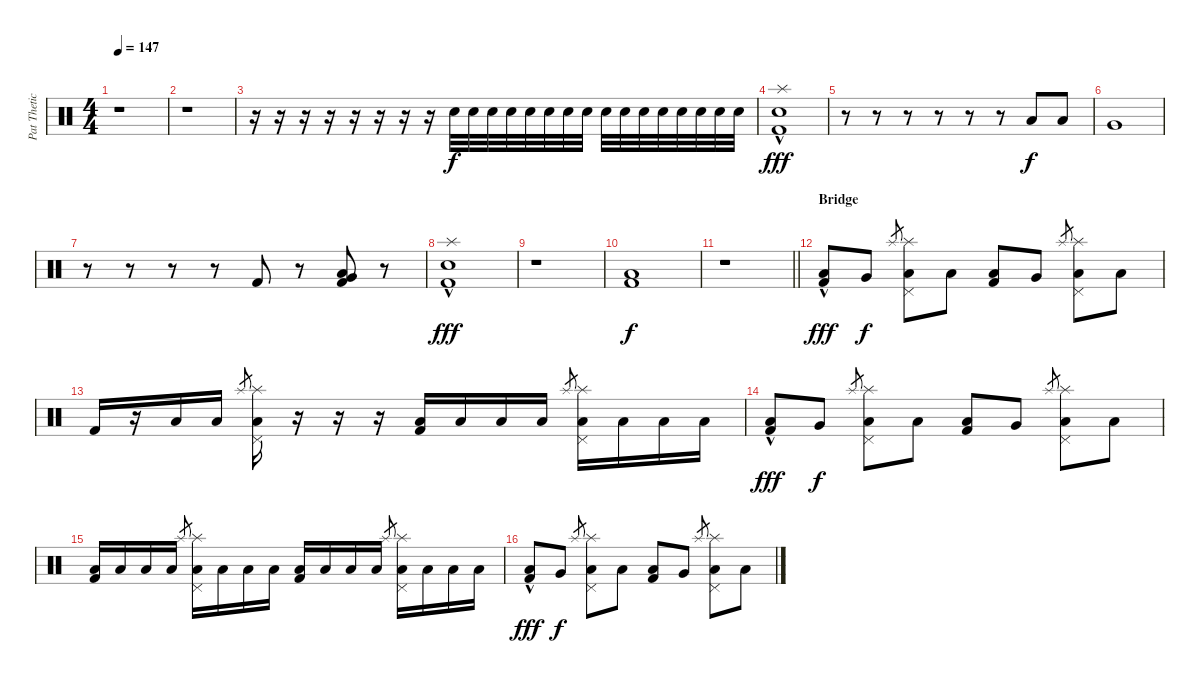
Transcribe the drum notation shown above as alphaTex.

\track ("Pat Thetic Drums" "Pat Thetic") {instrument percussion}
\staff {score}
\articulation defaults
\ts (4 4)
\tempo 147
\clef neutral
\ks c
r.1{dy f} |
r.1 |
r.16 r.16 r.16 r.16 r.16 r.16 r.16 r.16 "Snare (hit) 2".32{volume 5} "Snare (hit) 2".32 "Snare (hit) 2".32 "Snare (hit) 2".32 "Snare (hit) 2".32 "Snare (hit) 2".32 "Snare (hit) 2".32 "Snare (hit) 2".32 "Snare (hit) 2".32 "Snare (hit) 2".32 "Snare (hit) 2".32 "Snare (hit) 2".32 "Snare (hit) 2".32 "Snare (hit) 2".32 "Snare (hit) 2".32 "Snare (hit) 2".32 |
("Splash (hit)" "Snare (hit) 2"{hac} "Kick (hit) 2"{hac}).1{dy fff volume 16} |
r.8 r.8 r.8 r.8 r.8 r.8 "Low Floor Tom (hit)".8{dy f} "Low Floor Tom (hit)".8 |
"Very Low Tom (hit)".1 |
r.8 r.8 r.8 r.8 "Kick (hit) 2".8 r.8 ("Kick (hit) 2" "Very Low Tom (hit)" "Low Floor Tom (hit)").8 r.8 |
("Splash (hit)" "Snare (hit) 2"{hac} "Kick (hit) 2"{hac}).1{dy fff volume 16} |
r.1 |
("Kick (hit) 2" "Low Floor Tom (hit)").1{dy f} |
\barLineRight lightlight
r.1 |
\section ("" "Bridge")
("Kick (hit) 2"{hac} "Low Floor Tom (hit)").8{dy fff} "Very Low Tom (hit)".8{dy f} "Splash (hit)".8{gr} ("Splash (hit)" "Pedal Hi-Hat (hit)" "Low Tom (hit)").8 "Low Tom (hit)".8 ("Kick (hit) 2" "Low Floor Tom (hit)").8 "Very Low Tom (hit)".8 "Splash (hit)".8{gr} ("Splash (hit)" "Pedal Hi-Hat (hit)" "Low Tom (hit)").8 "Low Tom (hit)".8 |
"Kick (hit) 2".16 r.16 "Low Floor Tom (hit)".16 "Low Floor Tom (hit)".16 "Splash (hit)".8{gr} ("Splash (hit)" "Pedal Hi-Hat (hit)" "Low Floor Tom (hit)").16 r.16 r.16 r.16 ("Kick (hit) 2" "Low Floor Tom (hit)").16 "Low Floor Tom (hit)".16 "Low Floor Tom (hit)".16 "Low Floor Tom (hit)".16 "Splash (hit)".8{gr} ("Splash (hit)" "Pedal Hi-Hat (hit)" "Low Tom (hit)").16 "Low Tom (hit)".16 "Low Tom (hit)".16 "Low Tom (hit)".16 |
("Kick (hit) 2"{hac} "Low Floor Tom (hit)").8{dy fff} "Very Low Tom (hit)".8{dy f} "Splash (hit)".8{gr} ("Splash (hit)" "Pedal Hi-Hat (hit)" "Low Tom (hit)").8 "Low Tom (hit)".8 ("Kick (hit) 2" "Low Floor Tom (hit)").8 "Very Low Tom (hit)".8 "Splash (hit)".8{gr} ("Splash (hit)" "Pedal Hi-Hat (hit)" "Low Tom (hit)").8 "Low Tom (hit)".8 |
("Kick (hit) 2" "Low Tom (hit)").16 "Low Tom (hit)".16 "Low Tom (hit)".16 "Low Tom (hit)".16 "Splash (hit)".8{gr} ("Splash (hit)" "Pedal Hi-Hat (hit)" "Low Tom (hit)").16 "Low Tom (hit)".16 "Low Tom (hit)".16 "Low Tom (hit)".16 ("Kick (hit) 2" "Low Floor Tom (hit)").16 "Low Floor Tom (hit)".16 "Low Floor Tom (hit)".16 "Low Floor Tom (hit)".16 "Splash (hit)".8{gr} ("Splash (hit)" "Pedal Hi-Hat (hit)" "Low Floor Tom (hit)").16 "Low Floor Tom (hit)".16 "Low Floor Tom (hit)".16 "Low Floor Tom (hit)".16 |
("Kick (hit) 2"{hac} "Low Floor Tom (hit)").8{dy fff} "Very Low Tom (hit)".8{dy f} "Splash (hit)".8{gr} ("Splash (hit)" "Pedal Hi-Hat (hit)" "Low Tom (hit)").8 "Low Tom (hit)".8 ("Kick (hit) 2" "Low Floor Tom (hit)").8 "Very Low Tom (hit)".8 "Splash (hit)".8{gr} ("Splash (hit)" "Pedal Hi-Hat (hit)" "Low Tom (hit)").8 "Low Tom (hit)".8
